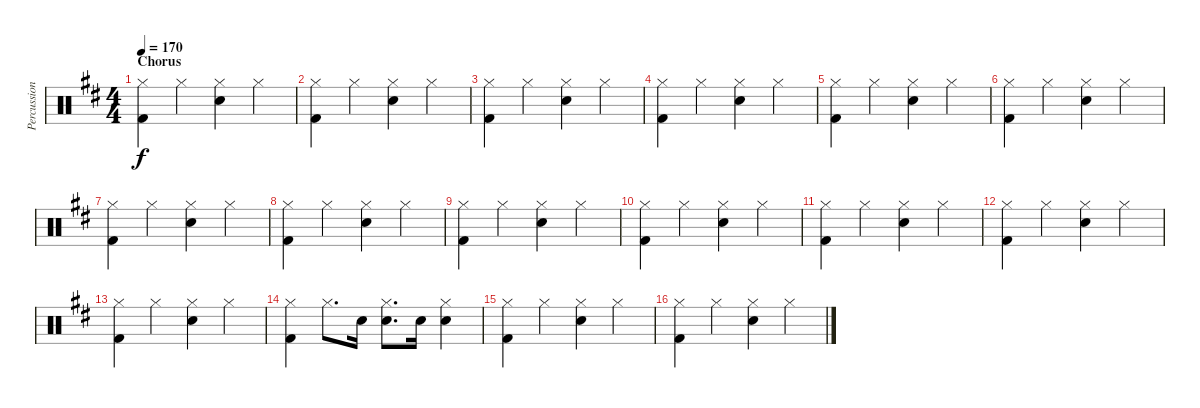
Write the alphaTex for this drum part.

\track ("Percussion" "Percussion") {instrument percussion}
\staff {score}
\articulation defaults
\ts (4 4)
\section ("" "Chorus")
\tempo 170
\clef neutral
\ks d
("Hi-Hat (closed)" "Kick (hit) 2").4{dy f} "Hi-Hat (closed)".4 ("Hi-Hat (closed)" "Snare (hit) 2").4 "Hi-Hat (closed)".4 |
("Hi-Hat (closed)" "Kick (hit) 2").4 "Hi-Hat (closed)".4 ("Hi-Hat (closed)" "Snare (hit) 2").4 "Hi-Hat (closed)".4 |
("Hi-Hat (closed)" "Kick (hit) 2").4 "Hi-Hat (closed)".4 ("Hi-Hat (closed)" "Snare (hit) 2").4 "Hi-Hat (closed)".4 |
("Hi-Hat (closed)" "Kick (hit) 2").4 "Hi-Hat (closed)".4 ("Hi-Hat (closed)" "Snare (hit) 2").4 "Hi-Hat (closed)".4 |
("Hi-Hat (closed)" "Kick (hit) 2").4 "Hi-Hat (closed)".4 ("Hi-Hat (closed)" "Snare (hit) 2").4 "Hi-Hat (closed)".4 |
("Hi-Hat (closed)" "Kick (hit) 2").4 "Hi-Hat (closed)".4 ("Hi-Hat (closed)" "Snare (hit) 2").4 "Hi-Hat (closed)".4 |
("Hi-Hat (closed)" "Kick (hit) 2").4 "Hi-Hat (closed)".4 ("Hi-Hat (closed)" "Snare (hit) 2").4 "Hi-Hat (closed)".4 |
("Hi-Hat (closed)" "Kick (hit) 2").4 "Hi-Hat (closed)".4 ("Hi-Hat (closed)" "Snare (hit) 2").4 "Hi-Hat (closed)".4 |
("Hi-Hat (closed)" "Kick (hit) 2").4 "Hi-Hat (closed)".4 ("Hi-Hat (closed)" "Snare (hit) 2").4 "Hi-Hat (closed)".4 |
("Hi-Hat (closed)" "Kick (hit) 2").4 "Hi-Hat (closed)".4 ("Hi-Hat (closed)" "Snare (hit) 2").4 "Hi-Hat (closed)".4 |
("Hi-Hat (closed)" "Kick (hit) 2").4 "Hi-Hat (closed)".4 ("Hi-Hat (closed)" "Snare (hit) 2").4 "Hi-Hat (closed)".4 |
("Hi-Hat (closed)" "Kick (hit) 2").4 "Hi-Hat (closed)".4 ("Hi-Hat (closed)" "Snare (hit) 2").4 "Hi-Hat (closed)".4 |
("Hi-Hat (closed)" "Kick (hit) 2").4 "Hi-Hat (closed)".4 ("Hi-Hat (closed)" "Snare (hit) 2").4 "Hi-Hat (closed)".4 |
("Hi-Hat (closed)" "Kick (hit) 2").4 "Hi-Hat (closed)".8{d} "Snare (hit) 2".16 ("Hi-Hat (closed)" "Snare (hit) 2").8{d} "Snare (hit) 2".16 ("Hi-Hat (closed)" "Snare (hit) 2").4 |
("Hi-Hat (closed)" "Kick (hit) 2").4 "Hi-Hat (closed)".4 ("Hi-Hat (closed)" "Snare (hit) 2").4 "Hi-Hat (closed)".4 |
("Hi-Hat (closed)" "Kick (hit) 2").4 "Hi-Hat (closed)".4 ("Hi-Hat (closed)" "Snare (hit) 2").4 "Hi-Hat (closed)".4
